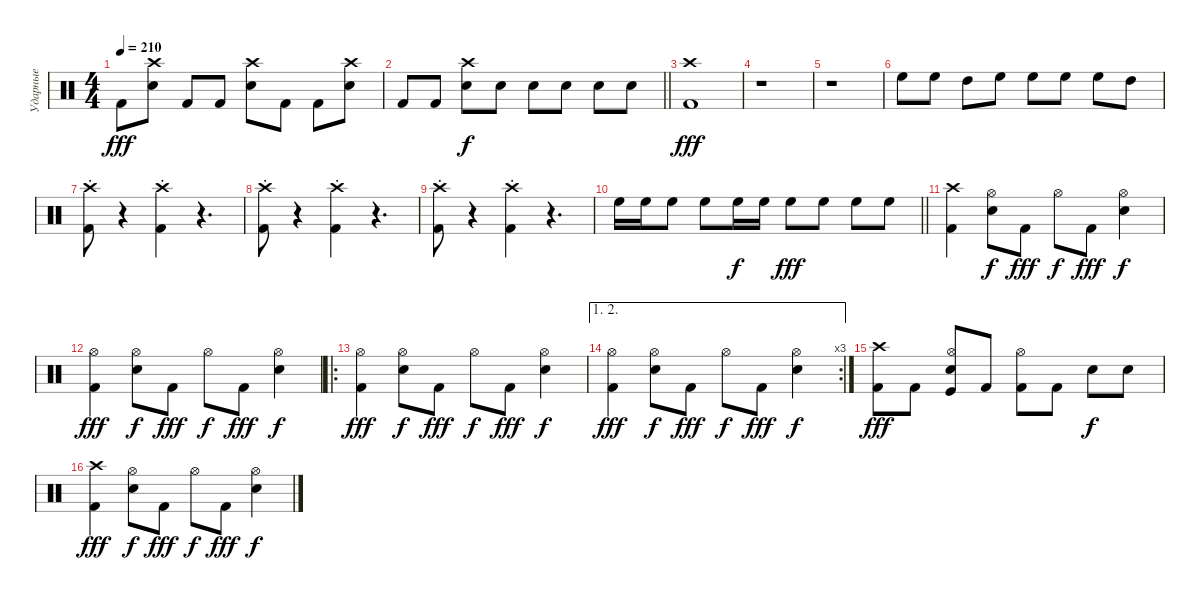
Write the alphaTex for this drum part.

\track ("Ударные" "Ударные") {instrument percussion}
\staff {score}
\articulation defaults
\ts (4 4)
\tempo 210
\clef neutral
\ks c "Kick (hit) 2".8{dy fff}
("Snare (hit) 2" "Crash high (hit)").8 "Kick (hit) 2".8 "Kick (hit) 2".8 ("Snare (hit) 2" "Crash high (hit)").8 "Kick (hit) 2".8 "Kick (hit) 2".8 ("Snare (hit) 2" "Crash high (hit)").8 |
\barLineRight lightlight "Kick (hit) 2".8 "Kick (hit) 2".8
("Snare (hit) 2" "Crash high (hit)").8{dy f} "Snare (hit) 2".8 "Snare (hit) 2".8 "Snare (hit) 2".8 "Snare (hit) 2".8 "Snare (hit) 2".8 |
("Kick (hit) 2" "Crash high (hit)").1{dy fff} |
r.1 |
r.1 |
"High Floor Tom (hit)".8 "High Floor Tom (hit)".8 "High Tom (hit)".8 "High Floor Tom (hit)".8 "High Floor Tom (hit)".8 "High Floor Tom (hit)".8 "High Floor Tom (hit)".8 "High Tom (hit)".8 |
("Kick (hit) 2"{st} "Crash high (hit)"{st}).8 r.4 ("Kick (hit) 2"{st} "Crash high (hit)"{st}).4 r.4{d} |
("Kick (hit) 2"{st} "Crash high (hit)"{st}).8 r.4 ("Kick (hit) 2"{st} "Crash high (hit)"{st}).4 r.4{d} |
("Kick (hit) 2"{st} "Crash high (hit)"{st}).8 r.4 ("Kick (hit) 2"{st} "Crash high (hit)"{st}).4 r.4{d} |
\barLineRight lightlight "High Floor Tom (hit)".16 "High Floor Tom (hit)".16 "High Floor Tom (hit)".8 "High Floor Tom (hit)".8 "High Floor Tom (hit)".16{dy f} "High Floor Tom (hit)".16 "High Floor Tom (hit)".8{dy fff} "High Floor Tom (hit)".8 "High Floor Tom (hit)".8 "High Floor Tom (hit)".8
|
("Kick (hit) 2" "Crash high (hit)").4 ("Snare (hit) 2" "Hi-Hat (open)").8{dy f} "Kick (hit) 2".8{dy fff} "Hi-Hat (open)".8{dy f} "Kick (hit) 2".8{dy fff} ("Snare (hit) 2" "Hi-Hat (open)").4{dy f} |
("Kick (hit) 2" "Hi-Hat (open)").4{dy fff} ("Snare (hit) 2" "Hi-Hat (open)").8{dy f} "Kick (hit) 2".8{dy fff} "Hi-Hat (open)".8{dy f} "Kick (hit) 2".8{dy fff} ("Snare (hit) 2" "Hi-Hat (open)").4{dy f} |
\ro
("Kick (hit) 2" "Hi-Hat (open)").4{dy fff} ("Snare (hit) 2" "Hi-Hat (open)").8{dy f} "Kick (hit) 2".8{dy fff} "Hi-Hat (open)".8{dy f} "Kick (hit) 2".8{dy fff} ("Snare (hit) 2" "Hi-Hat (open)").4{dy f} |
\ae (1 2)
\rc 3
("Kick (hit) 2" "Hi-Hat (open)").4{dy fff} ("Snare (hit) 2" "Hi-Hat (open)").8{dy f} "Kick (hit) 2".8{dy fff} "Hi-Hat (open)".8{dy f} "Kick (hit) 2".8{dy fff} ("Snare (hit) 2" "Hi-Hat (open)").4{dy f} |
("Kick (hit) 2" "Crash high (hit)").8{dy fff} "Kick (hit) 2".8 ("Kick (hit)" "Snare (hit) 2" "Hi-Hat (open)").8 "Kick (hit) 2".8 ("Kick (hit) 2" "Hi-Hat (open)").8 "Kick (hit) 2".8 "Snare (hit) 2".8{dy f} "Snare (hit) 2".8 |
("Kick (hit) 2" "Crash high (hit)").4{dy fff} ("Snare (hit) 2" "Hi-Hat (open)").8{dy f} "Kick (hit) 2".8{dy fff} "Hi-Hat (open)".8{dy f} "Kick (hit) 2".8{dy fff} ("Snare (hit) 2" "Hi-Hat (open)").4{dy f}
